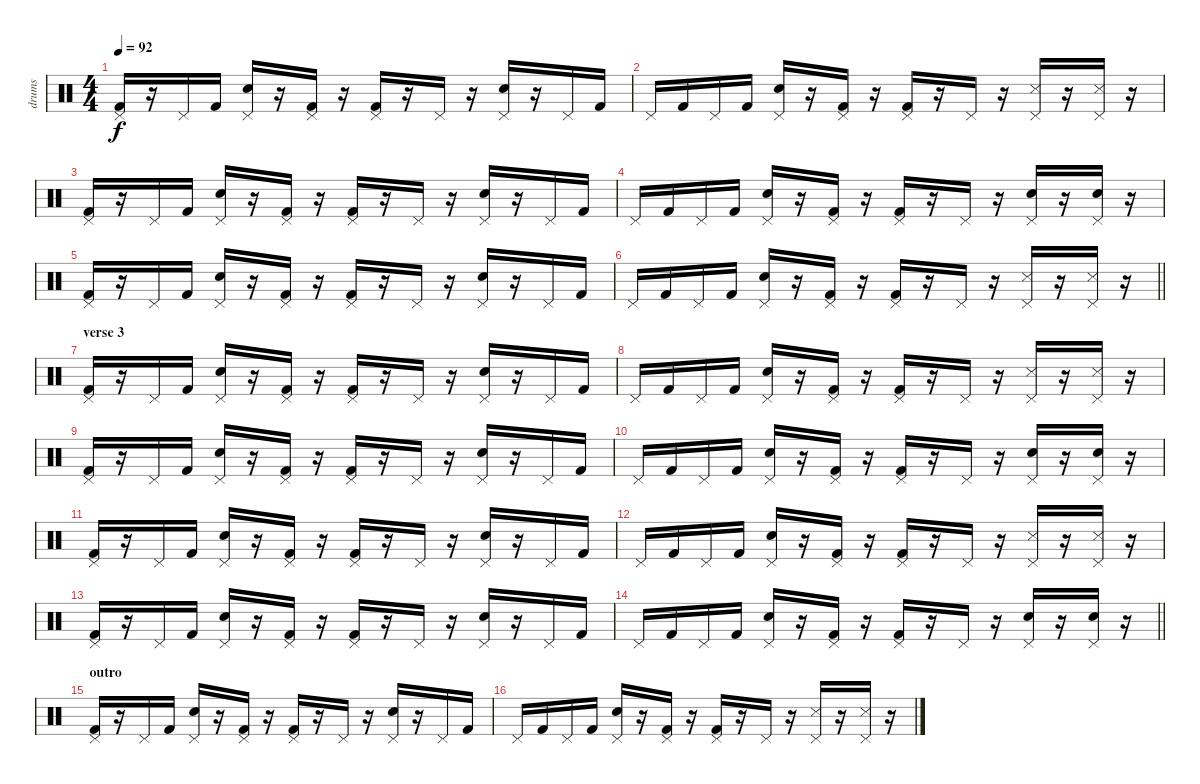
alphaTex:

\track ("drums" "drums") {instrument percussion}
\staff {score}
\articulation defaults
\ts (4 4)
\tempo 92
\clef neutral
\ks c
("Kick (hit) 2" "Pedal Hi-Hat (hit)").16{dy f} r.16 "Pedal Hi-Hat (hit)".16 "Kick (hit) 2".16 ("Electric Snare (hit)" "Pedal Hi-Hat (hit)").16 r.16 ("Kick (hit) 2" "Pedal Hi-Hat (hit)").16 r.16 ("Kick (hit) 2" "Pedal Hi-Hat (hit)").16 r.16 "Pedal Hi-Hat (hit)".16 r.16 ("Electric Snare (hit)" "Pedal Hi-Hat (hit)").16 r.16 "Pedal Hi-Hat (hit)".16 "Kick (hit) 2".16 |
"Pedal Hi-Hat (hit)".16 "Kick (hit) 2".16 "Pedal Hi-Hat (hit)".16 "Kick (hit) 2".16 ("Electric Snare (hit)" "Pedal Hi-Hat (hit)").16 r.16 ("Kick (hit) 2" "Pedal Hi-Hat (hit)").16 r.16 ("Kick (hit) 2" "Pedal Hi-Hat (hit)").16 r.16 "Pedal Hi-Hat (hit)".16 r.16 ("Snare (side stick) 3" "Pedal Hi-Hat (hit)").16 r.16 ("Snare (side stick) 3" "Pedal Hi-Hat (hit)").16 r.16 |
("Kick (hit) 2" "Pedal Hi-Hat (hit)").16 r.16 "Pedal Hi-Hat (hit)".16 "Kick (hit) 2".16 ("Electric Snare (hit)" "Pedal Hi-Hat (hit)").16 r.16 ("Kick (hit) 2" "Pedal Hi-Hat (hit)").16 r.16 ("Kick (hit) 2" "Pedal Hi-Hat (hit)").16 r.16 "Pedal Hi-Hat (hit)".16 r.16 ("Electric Snare (hit)" "Pedal Hi-Hat (hit)").16 r.16 "Pedal Hi-Hat (hit)".16 "Kick (hit) 2".16 |
"Pedal Hi-Hat (hit)".16 "Kick (hit) 2".16 "Pedal Hi-Hat (hit)".16 "Kick (hit) 2".16 ("Electric Snare (hit)" "Pedal Hi-Hat (hit)").16 r.16 ("Kick (hit) 2" "Pedal Hi-Hat (hit)").16 r.16 ("Kick (hit) 2" "Pedal Hi-Hat (hit)").16 r.16 "Pedal Hi-Hat (hit)".16 r.16 ("Electric Snare (hit)" "Pedal Hi-Hat (hit)").16 r.16 ("Electric Snare (hit)" "Pedal Hi-Hat (hit)").16 r.16 |
("Kick (hit) 2" "Pedal Hi-Hat (hit)").16 r.16 "Pedal Hi-Hat (hit)".16 "Kick (hit) 2".16 ("Electric Snare (hit)" "Pedal Hi-Hat (hit)").16 r.16 ("Kick (hit) 2" "Pedal Hi-Hat (hit)").16 r.16 ("Kick (hit) 2" "Pedal Hi-Hat (hit)").16 r.16 "Pedal Hi-Hat (hit)".16 r.16 ("Electric Snare (hit)" "Pedal Hi-Hat (hit)").16 r.16 "Pedal Hi-Hat (hit)".16 "Kick (hit) 2".16 |
\barLineRight lightlight "Pedal Hi-Hat (hit)".16 "Kick (hit) 2".16 "Pedal Hi-Hat (hit)".16 "Kick (hit) 2".16
("Electric Snare (hit)" "Pedal Hi-Hat (hit)").16 r.16 ("Kick (hit) 2" "Pedal Hi-Hat (hit)").16 r.16 ("Kick (hit) 2" "Pedal Hi-Hat (hit)").16 r.16 "Pedal Hi-Hat (hit)".16 r.16 ("Snare (side stick) 3" "Pedal Hi-Hat (hit)").16 r.16 ("Snare (side stick) 3" "Pedal Hi-Hat (hit)").16 r.16 |
\section ("" "verse 3")
("Kick (hit) 2" "Pedal Hi-Hat (hit)").16 r.16 "Pedal Hi-Hat (hit)".16 "Kick (hit) 2".16 ("Electric Snare (hit)" "Pedal Hi-Hat (hit)").16 r.16 ("Kick (hit) 2" "Pedal Hi-Hat (hit)").16 r.16 ("Kick (hit) 2" "Pedal Hi-Hat (hit)").16 r.16 "Pedal Hi-Hat (hit)".16 r.16 ("Electric Snare (hit)" "Pedal Hi-Hat (hit)").16 r.16 "Pedal Hi-Hat (hit)".16 "Kick (hit) 2".16 |
"Pedal Hi-Hat (hit)".16 "Kick (hit) 2".16 "Pedal Hi-Hat (hit)".16 "Kick (hit) 2".16 ("Electric Snare (hit)" "Pedal Hi-Hat (hit)").16 r.16 ("Kick (hit) 2" "Pedal Hi-Hat (hit)").16 r.16 ("Kick (hit) 2" "Pedal Hi-Hat (hit)").16 r.16 "Pedal Hi-Hat (hit)".16 r.16 ("Snare (side stick) 3" "Pedal Hi-Hat (hit)").16 r.16 ("Snare (side stick) 3" "Pedal Hi-Hat (hit)").16 r.16 |
("Kick (hit) 2" "Pedal Hi-Hat (hit)").16 r.16 "Pedal Hi-Hat (hit)".16 "Kick (hit) 2".16 ("Electric Snare (hit)" "Pedal Hi-Hat (hit)").16 r.16 ("Kick (hit) 2" "Pedal Hi-Hat (hit)").16 r.16 ("Kick (hit) 2" "Pedal Hi-Hat (hit)").16 r.16 "Pedal Hi-Hat (hit)".16 r.16 ("Electric Snare (hit)" "Pedal Hi-Hat (hit)").16 r.16 "Pedal Hi-Hat (hit)".16 "Kick (hit) 2".16 |
"Pedal Hi-Hat (hit)".16 "Kick (hit) 2".16 "Pedal Hi-Hat (hit)".16 "Kick (hit) 2".16 ("Electric Snare (hit)" "Pedal Hi-Hat (hit)").16 r.16 ("Kick (hit) 2" "Pedal Hi-Hat (hit)").16 r.16 ("Kick (hit) 2" "Pedal Hi-Hat (hit)").16 r.16 "Pedal Hi-Hat (hit)".16 r.16 ("Electric Snare (hit)" "Pedal Hi-Hat (hit)").16 r.16 ("Electric Snare (hit)" "Pedal Hi-Hat (hit)").16 r.16 |
("Kick (hit) 2" "Pedal Hi-Hat (hit)").16 r.16 "Pedal Hi-Hat (hit)".16 "Kick (hit) 2".16 ("Electric Snare (hit)" "Pedal Hi-Hat (hit)").16 r.16 ("Kick (hit) 2" "Pedal Hi-Hat (hit)").16 r.16 ("Kick (hit) 2" "Pedal Hi-Hat (hit)").16 r.16 "Pedal Hi-Hat (hit)".16 r.16 ("Electric Snare (hit)" "Pedal Hi-Hat (hit)").16 r.16 "Pedal Hi-Hat (hit)".16 "Kick (hit) 2".16 |
"Pedal Hi-Hat (hit)".16 "Kick (hit) 2".16 "Pedal Hi-Hat (hit)".16 "Kick (hit) 2".16 ("Electric Snare (hit)" "Pedal Hi-Hat (hit)").16 r.16 ("Kick (hit) 2" "Pedal Hi-Hat (hit)").16 r.16 ("Kick (hit) 2" "Pedal Hi-Hat (hit)").16 r.16 "Pedal Hi-Hat (hit)".16 r.16 ("Snare (side stick) 3" "Pedal Hi-Hat (hit)").16 r.16 ("Snare (side stick) 3" "Pedal Hi-Hat (hit)").16 r.16 |
("Kick (hit) 2" "Pedal Hi-Hat (hit)").16 r.16 "Pedal Hi-Hat (hit)".16 "Kick (hit) 2".16 ("Electric Snare (hit)" "Pedal Hi-Hat (hit)").16 r.16 ("Kick (hit) 2" "Pedal Hi-Hat (hit)").16 r.16 ("Kick (hit) 2" "Pedal Hi-Hat (hit)").16 r.16 "Pedal Hi-Hat (hit)".16 r.16 ("Electric Snare (hit)" "Pedal Hi-Hat (hit)").16 r.16 "Pedal Hi-Hat (hit)".16 "Kick (hit) 2".16 |
\barLineRight lightlight "Pedal Hi-Hat (hit)".16 "Kick (hit) 2".16 "Pedal Hi-Hat (hit)".16 "Kick (hit) 2".16
("Electric Snare (hit)" "Pedal Hi-Hat (hit)").16 r.16 ("Kick (hit) 2" "Pedal Hi-Hat (hit)").16 r.16 ("Kick (hit) 2" "Pedal Hi-Hat (hit)").16 r.16 "Pedal Hi-Hat (hit)".16 r.16 ("Electric Snare (hit)" "Pedal Hi-Hat (hit)").16 r.16 ("Electric Snare (hit)" "Pedal Hi-Hat (hit)").16 r.16 |
\section ("" "outro")
("Kick (hit) 2" "Pedal Hi-Hat (hit)").16 r.16 "Pedal Hi-Hat (hit)".16 "Kick (hit) 2".16 ("Electric Snare (hit)" "Pedal Hi-Hat (hit)").16 r.16 ("Kick (hit) 2" "Pedal Hi-Hat (hit)").16 r.16 ("Kick (hit) 2" "Pedal Hi-Hat (hit)").16 r.16 "Pedal Hi-Hat (hit)".16 r.16 ("Electric Snare (hit)" "Pedal Hi-Hat (hit)").16 r.16 "Pedal Hi-Hat (hit)".16 "Kick (hit) 2".16 |
"Pedal Hi-Hat (hit)".16 "Kick (hit) 2".16 "Pedal Hi-Hat (hit)".16 "Kick (hit) 2".16 ("Electric Snare (hit)" "Pedal Hi-Hat (hit)").16 r.16 ("Kick (hit) 2" "Pedal Hi-Hat (hit)").16 r.16 ("Kick (hit) 2" "Pedal Hi-Hat (hit)").16 r.16 "Pedal Hi-Hat (hit)".16 r.16 ("Snare (side stick) 3" "Pedal Hi-Hat (hit)").16 r.16 ("Snare (side stick) 3" "Pedal Hi-Hat (hit)").16 r.16
